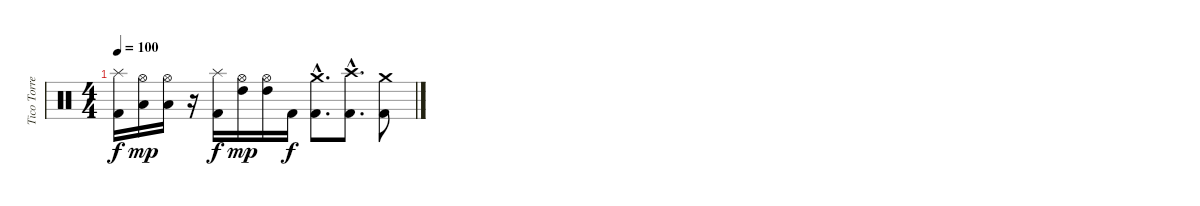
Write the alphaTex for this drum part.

\track ("Tico Torres" "Tico Torre") {instrument percussion}
\staff {score}
\articulation defaults
\ts (4 4)
\tempo 100
\clef neutral
\ks c
("Splash (hit)" "Kick (hit) 2").16{dy f} ("Low Tom (hit)" "Hi-Hat (open)").16{dy mp} ("Low Tom (hit)" "Hi-Hat (open)").16 r.16 ("Splash (hit)" "Kick (hit) 2").16{dy f} ("High Tom (hit)" "Hi-Hat (open)").16{dy mp} ("High Tom (hit)" "Hi-Hat (open)").16 "Kick (hit) 2".16{dy f} ("Crash medium (hit)"{hac} "Kick (hit) 2"{hac}).8{d} ("Crash high (hit)"{hac} "Kick (hit) 2"{hac}).8{d} ("Crash medium (hit)" "Kick (hit) 2").8
